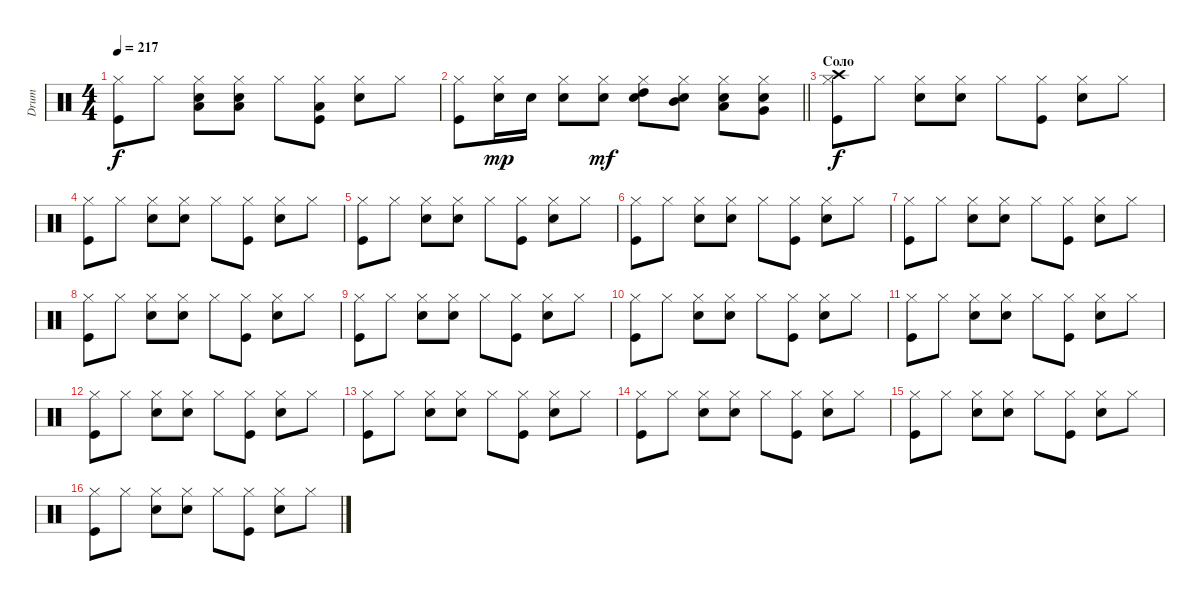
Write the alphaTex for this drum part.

\track ("Drum" "Drum") {instrument percussion}
\staff {score}
\articulation defaults
\ts (4 4)
\tempo 217
\clef neutral
\ks c
("Kick (hit)" "Hi-Hat (closed)").8{dy f} "Hi-Hat (closed)".8 ("Snare (hit) 2" "Hi-Hat (closed)" "Low Floor Tom (hit)").8 ("Snare (hit) 2" "Hi-Hat (closed)" "Low Floor Tom (hit)").8 "Hi-Hat (closed)".8 ("Kick (hit)" "Hi-Hat (closed)" "Low Floor Tom (hit)").8 ("Snare (hit) 2" "Hi-Hat (closed)").8 "Hi-Hat (closed)".8 |
\barLineRight lightlight
("Kick (hit)" "Hi-Hat (closed)").8 ("Snare (hit) 2" "Hi-Hat (closed)").16{dy mp} "Snare (hit) 2".16 ("Snare (hit) 2" "Hi-Hat (closed)").8 ("Snare (hit) 2" "Hi-Hat (closed)").8{dy mf} ("Snare (hit) 2" "Hi-Hat (closed)" "High Tom (hit)").8 ("Snare (hit) 2" "Hi-Hat (closed)" "Mid Tom (hit)").8 ("Snare (hit) 2" "Hi-Hat (closed)" "Low Tom (hit)").8 ("Snare (hit) 2" "Hi-Hat (closed)" "Very Low Tom (hit)").8 |
\section ("" "Соло")
("Kick (hit)" "Hi-Hat (closed)" "Crash high (hit)").8{dy f} "Hi-Hat (closed)".8 ("Snare (hit) 2" "Hi-Hat (closed)").8 ("Snare (hit) 2" "Hi-Hat (closed)").8 "Hi-Hat (closed)".8 ("Kick (hit)" "Hi-Hat (closed)").8 ("Snare (hit) 2" "Hi-Hat (closed)").8 "Hi-Hat (closed)".8 |
("Kick (hit)" "Hi-Hat (closed)").8 "Hi-Hat (closed)".8 ("Snare (hit) 2" "Hi-Hat (closed)").8 ("Snare (hit) 2" "Hi-Hat (closed)").8 "Hi-Hat (closed)".8 ("Kick (hit)" "Hi-Hat (closed)").8 ("Snare (hit) 2" "Hi-Hat (closed)").8 "Hi-Hat (closed)".8 |
("Kick (hit)" "Hi-Hat (closed)").8 "Hi-Hat (closed)".8 ("Snare (hit) 2" "Hi-Hat (closed)").8 ("Snare (hit) 2" "Hi-Hat (closed)").8 "Hi-Hat (closed)".8 ("Kick (hit)" "Hi-Hat (closed)").8 ("Snare (hit) 2" "Hi-Hat (closed)").8 "Hi-Hat (closed)".8 |
("Kick (hit)" "Hi-Hat (closed)").8 "Hi-Hat (closed)".8 ("Snare (hit) 2" "Hi-Hat (closed)").8 ("Snare (hit) 2" "Hi-Hat (closed)").8 "Hi-Hat (closed)".8 ("Kick (hit)" "Hi-Hat (closed)").8 ("Snare (hit) 2" "Hi-Hat (closed)").8 "Hi-Hat (closed)".8 |
("Kick (hit)" "Hi-Hat (closed)").8 "Hi-Hat (closed)".8 ("Snare (hit) 2" "Hi-Hat (closed)").8 ("Snare (hit) 2" "Hi-Hat (closed)").8 "Hi-Hat (closed)".8 ("Kick (hit)" "Hi-Hat (closed)").8 ("Snare (hit) 2" "Hi-Hat (closed)").8 "Hi-Hat (closed)".8 |
("Kick (hit)" "Hi-Hat (closed)").8 "Hi-Hat (closed)".8 ("Snare (hit) 2" "Hi-Hat (closed)").8 ("Snare (hit) 2" "Hi-Hat (closed)").8 "Hi-Hat (closed)".8 ("Kick (hit)" "Hi-Hat (closed)").8 ("Snare (hit) 2" "Hi-Hat (closed)").8 "Hi-Hat (closed)".8 |
("Kick (hit)" "Hi-Hat (closed)").8 "Hi-Hat (closed)".8 ("Snare (hit) 2" "Hi-Hat (closed)").8 ("Snare (hit) 2" "Hi-Hat (closed)").8 "Hi-Hat (closed)".8 ("Kick (hit)" "Hi-Hat (closed)").8 ("Snare (hit) 2" "Hi-Hat (closed)").8 "Hi-Hat (closed)".8 |
("Kick (hit)" "Hi-Hat (closed)").8 "Hi-Hat (closed)".8 ("Snare (hit) 2" "Hi-Hat (closed)").8 ("Snare (hit) 2" "Hi-Hat (closed)").8 "Hi-Hat (closed)".8 ("Kick (hit)" "Hi-Hat (closed)").8 ("Snare (hit) 2" "Hi-Hat (closed)").8 "Hi-Hat (closed)".8 |
("Kick (hit)" "Hi-Hat (closed)").8 "Hi-Hat (closed)".8 ("Snare (hit) 2" "Hi-Hat (closed)").8 ("Snare (hit) 2" "Hi-Hat (closed)").8 "Hi-Hat (closed)".8 ("Kick (hit)" "Hi-Hat (closed)").8 ("Snare (hit) 2" "Hi-Hat (closed)").8 "Hi-Hat (closed)".8 |
("Kick (hit)" "Hi-Hat (closed)").8 "Hi-Hat (closed)".8 ("Snare (hit) 2" "Hi-Hat (closed)").8 ("Snare (hit) 2" "Hi-Hat (closed)").8 "Hi-Hat (closed)".8 ("Kick (hit)" "Hi-Hat (closed)").8 ("Snare (hit) 2" "Hi-Hat (closed)").8 "Hi-Hat (closed)".8 |
("Kick (hit)" "Hi-Hat (closed)").8 "Hi-Hat (closed)".8 ("Snare (hit) 2" "Hi-Hat (closed)").8 ("Snare (hit) 2" "Hi-Hat (closed)").8 "Hi-Hat (closed)".8 ("Kick (hit)" "Hi-Hat (closed)").8 ("Snare (hit) 2" "Hi-Hat (closed)").8 "Hi-Hat (closed)".8 |
("Kick (hit)" "Hi-Hat (closed)").8 "Hi-Hat (closed)".8 ("Snare (hit) 2" "Hi-Hat (closed)").8 ("Snare (hit) 2" "Hi-Hat (closed)").8 "Hi-Hat (closed)".8 ("Kick (hit)" "Hi-Hat (closed)").8 ("Snare (hit) 2" "Hi-Hat (closed)").8 "Hi-Hat (closed)".8 |
("Kick (hit)" "Hi-Hat (closed)").8 "Hi-Hat (closed)".8 ("Snare (hit) 2" "Hi-Hat (closed)").8 ("Snare (hit) 2" "Hi-Hat (closed)").8 "Hi-Hat (closed)".8 ("Kick (hit)" "Hi-Hat (closed)").8 ("Snare (hit) 2" "Hi-Hat (closed)").8 "Hi-Hat (closed)".8 |
("Kick (hit)" "Hi-Hat (closed)").8 "Hi-Hat (closed)".8 ("Snare (hit) 2" "Hi-Hat (closed)").8 ("Snare (hit) 2" "Hi-Hat (closed)").8 "Hi-Hat (closed)".8 ("Kick (hit)" "Hi-Hat (closed)").8 ("Snare (hit) 2" "Hi-Hat (closed)").8 "Hi-Hat (closed)".8
